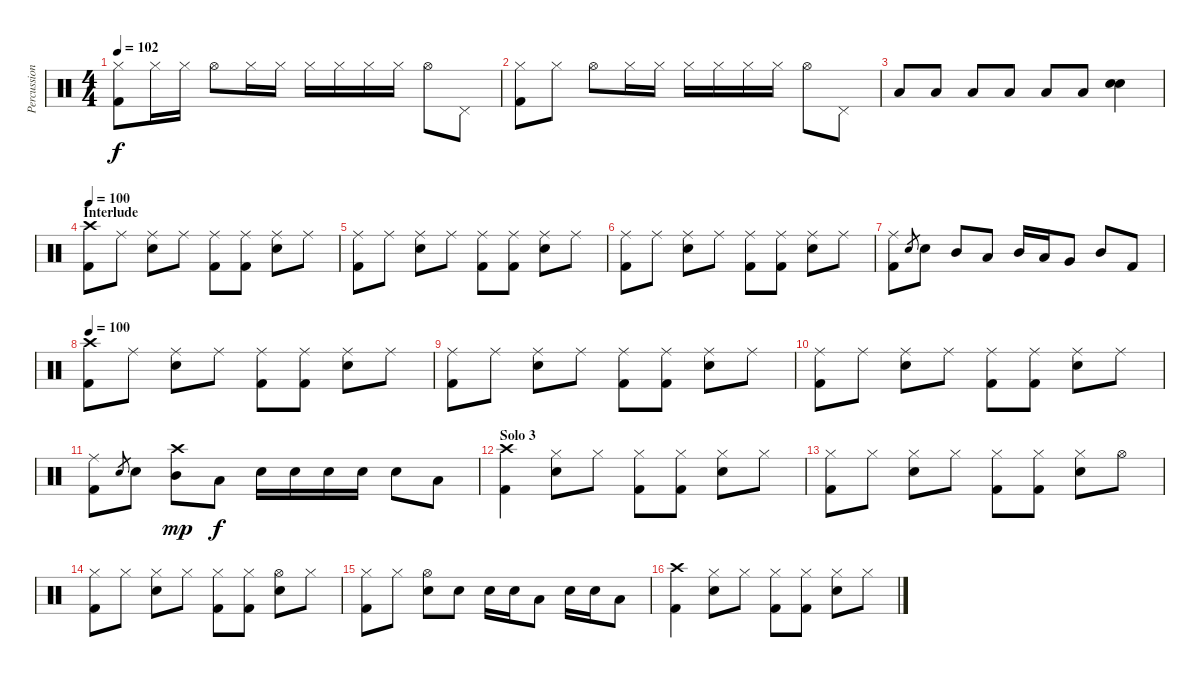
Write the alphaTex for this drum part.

\track ("Percussion" "Percussion") {instrument percussion}
\staff {score}
\articulation defaults
\ts (4 4)
\tempo 102
\clef neutral
\ks c
("Hi-Hat (closed)" "Kick (hit) 2").8{dy f} "Hi-Hat (closed)".16 "Hi-Hat (closed)".16 "Hi-Hat (open)".8 "Hi-Hat (closed)".16 "Hi-Hat (closed)".16 "Hi-Hat (closed)".16 "Hi-Hat (closed)".16 "Hi-Hat (closed)".16 "Hi-Hat (closed)".16 "Hi-Hat (open)".8 "Pedal Hi-Hat (hit)".8 |
("Hi-Hat (closed)" "Kick (hit) 2").8 "Hi-Hat (closed)".8 "Hi-Hat (open)".8 "Hi-Hat (closed)".16 "Hi-Hat (closed)".16 "Hi-Hat (closed)".16 "Hi-Hat (closed)".16 "Hi-Hat (closed)".16 "Hi-Hat (closed)".16 "Hi-Hat (open)".8 "Pedal Hi-Hat (hit)".8 |
"Low Tom (hit)".8{volume 13} "Low Tom (hit)".8 "Low Tom (hit)".8 "Low Tom (hit)".8 "Low Tom (hit)".8 "Low Tom (hit)".8 ("Electric Snare (hit)" "Electric Snare (hit)").4 |
\section ("" "Interlude")
\tempo 100
("Crash high (hit)" "Kick (hit) 2").8{volume 13} "Ride (middle)".8 ("Ride (middle)" "Electric Snare (hit)").8 "Ride (middle)".8 ("Ride (middle)" "Kick (hit) 2").8 ("Ride (middle)" "Kick (hit) 2").8 ("Ride (middle)" "Electric Snare (hit)").8 "Ride (middle)".8 |
("Ride (middle)" "Kick (hit) 2").8 "Ride (middle)".8 ("Ride (middle)" "Electric Snare (hit)").8 "Ride (middle)".8 ("Ride (middle)" "Kick (hit) 2").8 ("Ride (middle)" "Kick (hit) 2").8 ("Ride (middle)" "Electric Snare (hit)").8 "Ride (middle)".8 |
("Ride (middle)" "Kick (hit) 2").8 "Ride (middle)".8 ("Ride (middle)" "Electric Snare (hit)").8 "Ride (middle)".8 ("Ride (middle)" "Kick (hit) 2").8 ("Ride (middle)" "Kick (hit) 2").8 ("Ride (middle)" "Electric Snare (hit)").8 "Ride (middle)".8 |
("Ride (middle)" "Kick (hit) 2").8 "Electric Snare (hit)".8{gr} "Electric Snare (hit)".8 "Mid Tom (hit)".8 "Low Tom (hit)".8 "Mid Tom (hit)".16 "Low Tom (hit)".16 "Very Low Tom (hit)".8 "Mid Tom (hit)".8 "Kick (hit) 2".8 |
\tempo 100
("Crash high (hit)" "Kick (hit) 2").8{volume 13} "Ride (middle)".8 ("Ride (middle)" "Electric Snare (hit)").8 "Ride (middle)".8 ("Ride (middle)" "Kick (hit) 2").8 ("Ride (middle)" "Kick (hit) 2").8 ("Ride (middle)" "Electric Snare (hit)").8 "Ride (middle)".8 |
("Ride (middle)" "Kick (hit) 2").8 "Ride (middle)".8 ("Ride (middle)" "Electric Snare (hit)").8 "Ride (middle)".8 ("Ride (middle)" "Kick (hit) 2").8 ("Ride (middle)" "Kick (hit) 2").8 ("Ride (middle)" "Electric Snare (hit)").8 "Ride (middle)".8 |
("Ride (middle)" "Kick (hit) 2").8 "Ride (middle)".8 ("Ride (middle)" "Electric Snare (hit)").8 "Ride (middle)".8 ("Ride (middle)" "Kick (hit) 2").8 ("Ride (middle)" "Kick (hit) 2").8 ("Ride (middle)" "Electric Snare (hit)").8 "Ride (middle)".8 |
("Ride (middle)" "Kick (hit) 2").8 "Electric Snare (hit)".8{gr} "Electric Snare (hit)".8 ("Crash high (hit)" "Mid Tom (hit)").8{dy mp} "Low Tom (hit)".8{dy f} "Electric Snare (hit)".16 "Electric Snare (hit)".16 "Electric Snare (hit)".16 "Electric Snare (hit)".16 "Electric Snare (hit)".8 "Low Tom (hit)".8 |
\section ("" "Solo 3")
("Crash high (hit)" "Kick (hit) 2").4 ("Hi-Hat (closed)" "Electric Snare (hit)").8 "Hi-Hat (closed)".8 ("Hi-Hat (closed)" "Kick (hit) 2").8 ("Hi-Hat (closed)" "Kick (hit) 2").8 ("Hi-Hat (closed)" "Electric Snare (hit)").8 "Hi-Hat (closed)".8 |
("Hi-Hat (closed)" "Kick (hit) 2").8 "Hi-Hat (closed)".8 ("Hi-Hat (closed)" "Electric Snare (hit)").8 "Hi-Hat (closed)".8 ("Hi-Hat (closed)" "Kick (hit) 2").8 ("Hi-Hat (closed)" "Kick (hit) 2").8 ("Hi-Hat (closed)" "Electric Snare (hit)").8 "Hi-Hat (open)".8 |
("Hi-Hat (closed)" "Kick (hit) 2").8 "Hi-Hat (closed)".8 ("Hi-Hat (closed)" "Electric Snare (hit)").8 "Hi-Hat (closed)".8 ("Hi-Hat (closed)" "Kick (hit) 2").8 ("Hi-Hat (closed)" "Kick (hit) 2").8 ("Hi-Hat (open)" "Electric Snare (hit)").8 "Hi-Hat (closed)".8 |
("Hi-Hat (closed)" "Kick (hit) 2").8 "Hi-Hat (closed)".8 ("Hi-Hat (open)" "Electric Snare (hit)").8 "Electric Snare (hit)".8 "Electric Snare (hit)".16 "Electric Snare (hit)".16 "Low Tom (hit)".8 "Electric Snare (hit)".16 "Electric Snare (hit)".16 "Low Tom (hit)".8 |
("Crash high (hit)" "Kick (hit) 2").4 ("Hi-Hat (closed)" "Electric Snare (hit)").8 "Hi-Hat (closed)".8 ("Hi-Hat (closed)" "Kick (hit) 2").8 ("Hi-Hat (closed)" "Kick (hit) 2").8 ("Hi-Hat (closed)" "Electric Snare (hit)").8 "Hi-Hat (closed)".8
